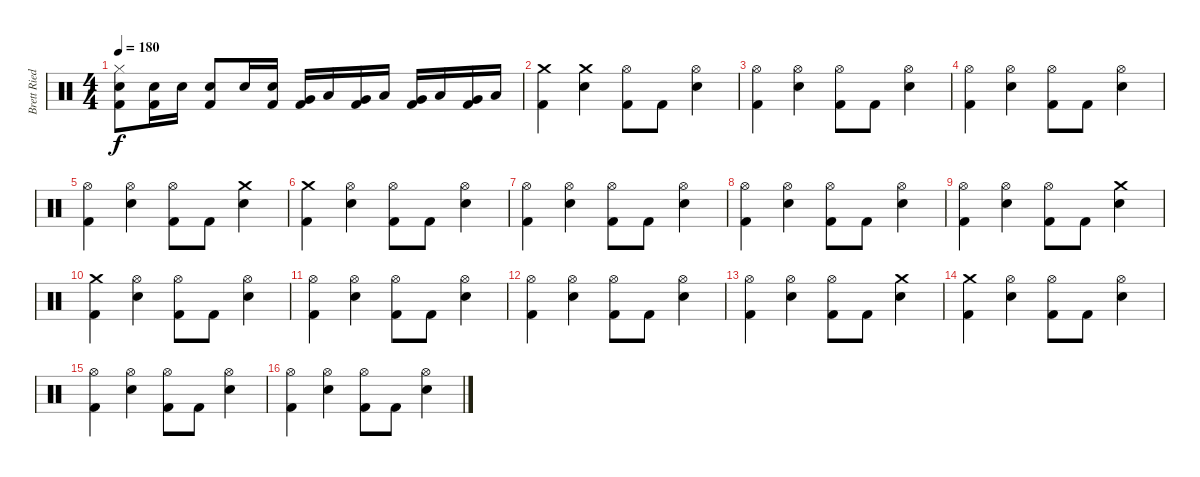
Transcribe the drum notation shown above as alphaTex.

\track ("Brett Ried" "Brett Ried") {instrument percussion}
\staff {score}
\articulation defaults
\ts (4 4)
\tempo 180
\clef neutral
\ks c
("Hi-Hat (closed)" "Snare (hit) 2" "Kick (hit) 2").8{dy f} ("Snare (hit) 2" "Kick (hit) 2").16 "Snare (hit) 2".16 ("Snare (hit) 2" "Kick (hit) 2").8 "Snare (hit) 2".16 ("Snare (hit) 2" "Kick (hit) 2").16 ("Very Low Tom (hit)" "Kick (hit) 2").16 "Low Tom (hit)".16 ("Very Low Tom (hit)" "Kick (hit) 2").16 "Low Tom (hit)".16 ("Very Low Tom (hit)" "Kick (hit) 2").16 "Low Tom (hit)".16 ("Very Low Tom (hit)" "Kick (hit) 2").16 "Low Tom (hit)".16 |
("Crash medium (hit)" "Kick (hit) 2").4 ("Crash medium (hit)" "Snare (hit) 2").4 ("Hi-Hat (open)" "Kick (hit) 2").8 "Kick (hit) 2".8 ("Hi-Hat (open)" "Snare (hit) 2").4 |
("Hi-Hat (open)" "Kick (hit) 2").4 ("Hi-Hat (open)" "Snare (hit) 2").4 ("Hi-Hat (open)" "Kick (hit) 2").8 "Kick (hit) 2".8 ("Hi-Hat (open)" "Snare (hit) 2").4 |
("Hi-Hat (open)" "Kick (hit) 2").4 ("Hi-Hat (open)" "Snare (hit) 2").4 ("Hi-Hat (open)" "Kick (hit) 2").8 "Kick (hit) 2".8 ("Hi-Hat (open)" "Snare (hit) 2").4 |
("Hi-Hat (open)" "Kick (hit) 2").4 ("Hi-Hat (open)" "Snare (hit) 2").4 ("Hi-Hat (open)" "Kick (hit) 2").8 "Kick (hit) 2".8 ("Crash medium (hit)" "Snare (hit) 2").4 |
("Crash medium (hit)" "Kick (hit) 2").4 ("Hi-Hat (open)" "Snare (hit) 2").4 ("Hi-Hat (open)" "Kick (hit) 2").8 "Kick (hit) 2".8 ("Hi-Hat (open)" "Snare (hit) 2").4 |
("Hi-Hat (open)" "Kick (hit) 2").4 ("Hi-Hat (open)" "Snare (hit) 2").4 ("Hi-Hat (open)" "Kick (hit) 2").8 "Kick (hit) 2".8 ("Hi-Hat (open)" "Snare (hit) 2").4 |
("Hi-Hat (open)" "Kick (hit) 2").4 ("Hi-Hat (open)" "Snare (hit) 2").4 ("Hi-Hat (open)" "Kick (hit) 2").8 "Kick (hit) 2".8 ("Hi-Hat (open)" "Snare (hit) 2").4 |
("Hi-Hat (open)" "Kick (hit) 2").4 ("Hi-Hat (open)" "Snare (hit) 2").4 ("Hi-Hat (open)" "Kick (hit) 2").8 "Kick (hit) 2".8 ("Crash medium (hit)" "Snare (hit) 2").4 |
("Crash medium (hit)" "Kick (hit) 2").4 ("Hi-Hat (open)" "Snare (hit) 2").4 ("Hi-Hat (open)" "Kick (hit) 2").8 "Kick (hit) 2".8 ("Hi-Hat (open)" "Snare (hit) 2").4 |
("Hi-Hat (open)" "Kick (hit) 2").4 ("Hi-Hat (open)" "Snare (hit) 2").4 ("Hi-Hat (open)" "Kick (hit) 2").8 "Kick (hit) 2".8 ("Hi-Hat (open)" "Snare (hit) 2").4 |
("Hi-Hat (open)" "Kick (hit) 2").4 ("Hi-Hat (open)" "Snare (hit) 2").4 ("Hi-Hat (open)" "Kick (hit) 2").8 "Kick (hit) 2".8 ("Hi-Hat (open)" "Snare (hit) 2").4 |
("Hi-Hat (open)" "Kick (hit) 2").4 ("Hi-Hat (open)" "Snare (hit) 2").4 ("Hi-Hat (open)" "Kick (hit) 2").8 "Kick (hit) 2".8 ("Crash medium (hit)" "Snare (hit) 2").4 |
("Crash medium (hit)" "Kick (hit) 2").4 ("Hi-Hat (open)" "Snare (hit) 2").4 ("Hi-Hat (open)" "Kick (hit) 2").8 "Kick (hit) 2".8 ("Hi-Hat (open)" "Snare (hit) 2").4 |
("Hi-Hat (open)" "Kick (hit) 2").4 ("Hi-Hat (open)" "Snare (hit) 2").4 ("Hi-Hat (open)" "Kick (hit) 2").8 "Kick (hit) 2".8 ("Hi-Hat (open)" "Snare (hit) 2").4 |
("Hi-Hat (open)" "Kick (hit) 2").4 ("Hi-Hat (open)" "Snare (hit) 2").4 ("Hi-Hat (open)" "Kick (hit) 2").8 "Kick (hit) 2".8 ("Hi-Hat (open)" "Snare (hit) 2").4
